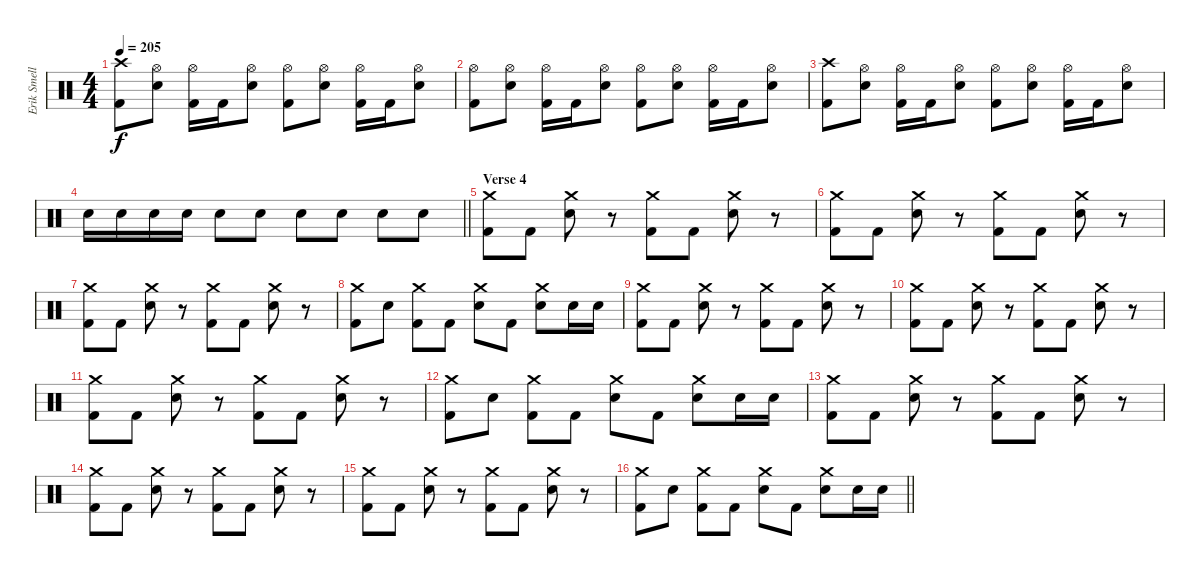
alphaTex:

\track ("Erik Smelly" "Erik Smell") {instrument percussion}
\staff {score}
\articulation defaults
\ts (4 4)
\tempo 205
\clef neutral
\ks c
("Crash high (hit)" "Kick (hit) 2").8{dy f} ("Hi-Hat (open)" "Electric Snare (hit)").8 ("Hi-Hat (open)" "Kick (hit) 2").16 "Kick (hit) 2".16 ("Hi-Hat (open)" "Electric Snare (hit)").8 ("Hi-Hat (open)" "Kick (hit) 2").8 ("Hi-Hat (open)" "Electric Snare (hit)").8 ("Hi-Hat (open)" "Kick (hit) 2").16 "Kick (hit) 2".16 ("Hi-Hat (open)" "Electric Snare (hit)").8 |
("Hi-Hat (open)" "Kick (hit) 2").8 ("Hi-Hat (open)" "Electric Snare (hit)").8 ("Hi-Hat (open)" "Kick (hit) 2").16 "Kick (hit) 2".16 ("Hi-Hat (open)" "Electric Snare (hit)").8 ("Hi-Hat (open)" "Kick (hit) 2").8 ("Hi-Hat (open)" "Electric Snare (hit)").8 ("Hi-Hat (open)" "Kick (hit) 2").16 "Kick (hit) 2".16 ("Hi-Hat (open)" "Electric Snare (hit)").8 |
("Crash high (hit)" "Kick (hit) 2").8 ("Hi-Hat (open)" "Electric Snare (hit)").8 ("Hi-Hat (open)" "Kick (hit) 2").16 "Kick (hit) 2".16 ("Hi-Hat (open)" "Electric Snare (hit)").8 ("Hi-Hat (open)" "Kick (hit) 2").8 ("Hi-Hat (open)" "Electric Snare (hit)").8 ("Hi-Hat (open)" "Kick (hit) 2").16 "Kick (hit) 2".16 ("Hi-Hat (open)" "Electric Snare (hit)").8 |
\barLineRight lightlight "Electric Snare (hit)".16 "Electric Snare (hit)".16 "Electric Snare (hit)".16 "Electric Snare (hit)".16 "Electric Snare (hit)".8 "Electric Snare (hit)".8 "Electric Snare (hit)".8 "Electric Snare (hit)".8 "Electric Snare (hit)".8 "Electric Snare (hit)".8
|
\section ("" "Verse 4")
("Crash medium (hit)" "Kick (hit) 2").8 "Kick (hit) 2".8 ("Crash medium (hit)" "Electric Snare (hit)").8 r.8 ("Crash medium (hit)" "Kick (hit) 2").8 "Kick (hit) 2".8 ("Crash medium (hit)" "Electric Snare (hit)").8 r.8 |
("Crash medium (hit)" "Kick (hit) 2").8 "Kick (hit) 2".8 ("Crash medium (hit)" "Electric Snare (hit)").8 r.8 ("Crash medium (hit)" "Kick (hit) 2").8 "Kick (hit) 2".8 ("Crash medium (hit)" "Electric Snare (hit)").8 r.8 |
("Crash medium (hit)" "Kick (hit) 2").8 "Kick (hit) 2".8 ("Crash medium (hit)" "Electric Snare (hit)").8 r.8 ("Crash medium (hit)" "Kick (hit) 2").8 "Kick (hit) 2".8 ("Crash medium (hit)" "Electric Snare (hit)").8 r.8 |
("Crash medium (hit)" "Kick (hit) 2").8 "Electric Snare (hit)".8 ("Crash medium (hit)" "Kick (hit) 2").8 "Kick (hit) 2".8 ("Crash medium (hit)" "Electric Snare (hit)").8 "Kick (hit) 2".8 ("Crash medium (hit)" "Electric Snare (hit)").8 "Electric Snare (hit)".16 "Electric Snare (hit)".16 |
("Crash medium (hit)" "Kick (hit) 2").8 "Kick (hit) 2".8 ("Crash medium (hit)" "Electric Snare (hit)").8 r.8 ("Crash medium (hit)" "Kick (hit) 2").8 "Kick (hit) 2".8 ("Crash medium (hit)" "Electric Snare (hit)").8 r.8 |
("Crash medium (hit)" "Kick (hit) 2").8 "Kick (hit) 2".8 ("Crash medium (hit)" "Electric Snare (hit)").8 r.8 ("Crash medium (hit)" "Kick (hit) 2").8 "Kick (hit) 2".8 ("Crash medium (hit)" "Electric Snare (hit)").8 r.8 |
("Crash medium (hit)" "Kick (hit) 2").8 "Kick (hit) 2".8 ("Crash medium (hit)" "Electric Snare (hit)").8 r.8 ("Crash medium (hit)" "Kick (hit) 2").8 "Kick (hit) 2".8 ("Crash medium (hit)" "Electric Snare (hit)").8 r.8 |
("Crash medium (hit)" "Kick (hit) 2").8 "Electric Snare (hit)".8 ("Crash medium (hit)" "Kick (hit) 2").8 "Kick (hit) 2".8 ("Crash medium (hit)" "Electric Snare (hit)").8 "Kick (hit) 2".8 ("Crash medium (hit)" "Electric Snare (hit)").8 "Electric Snare (hit)".16 "Electric Snare (hit)".16 |
("Crash medium (hit)" "Kick (hit) 2").8 "Kick (hit) 2".8 ("Crash medium (hit)" "Electric Snare (hit)").8 r.8 ("Crash medium (hit)" "Kick (hit) 2").8 "Kick (hit) 2".8 ("Crash medium (hit)" "Electric Snare (hit)").8 r.8 |
("Crash medium (hit)" "Kick (hit) 2").8 "Kick (hit) 2".8 ("Crash medium (hit)" "Electric Snare (hit)").8 r.8 ("Crash medium (hit)" "Kick (hit) 2").8 "Kick (hit) 2".8 ("Crash medium (hit)" "Electric Snare (hit)").8 r.8 |
("Crash medium (hit)" "Kick (hit) 2").8 "Kick (hit) 2".8 ("Crash medium (hit)" "Electric Snare (hit)").8 r.8 ("Crash medium (hit)" "Kick (hit) 2").8 "Kick (hit) 2".8 ("Crash medium (hit)" "Electric Snare (hit)").8 r.8 |
\barLineRight lightlight
("Crash medium (hit)" "Kick (hit) 2").8 "Electric Snare (hit)".8 ("Crash medium (hit)" "Kick (hit) 2").8 "Kick (hit) 2".8 ("Crash medium (hit)" "Electric Snare (hit)").8 "Kick (hit) 2".8 ("Crash medium (hit)" "Electric Snare (hit)").8 "Electric Snare (hit)".16 "Electric Snare (hit)".16
